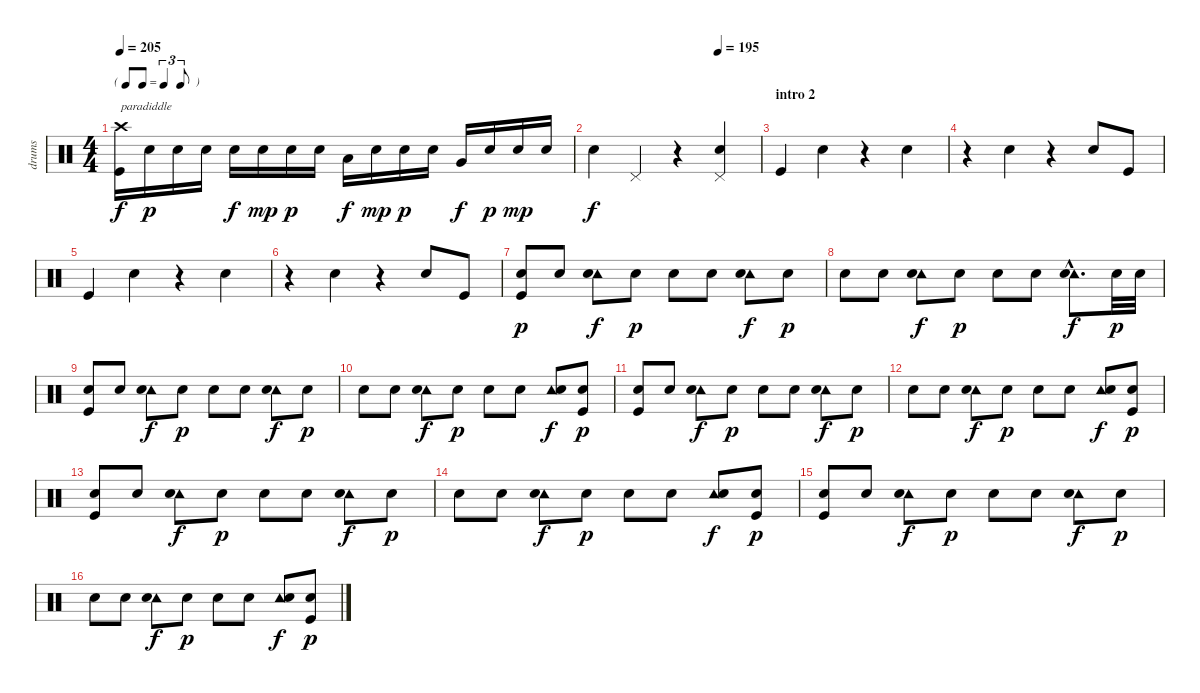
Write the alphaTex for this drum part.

\track ("drums" "drums") {instrument percussion}
\staff {score}
\articulation defaults
\ts (4 4)
\tf triplet8th
\tempo 205
\clef neutral
\ks c
("Crash high (hit)" "Kick (hit)").16{txt "paradiddle" dy f} "Snare (hit) 2".16{dy p} "Snare (hit) 2".16 "Snare (hit) 2".16 "Snare (hit) 2".16{dy f} "Snare (hit) 2".16{dy mp} "Snare (hit) 2".16{dy p} "Snare (hit) 2".16 "Low Tom (hit)".16{dy f} "Snare (hit) 2".16{dy mp} "Snare (hit) 2".16{dy p} "Snare (hit) 2".16 "Very Low Tom (hit)".16{dy f} "Snare (hit) 2".16{dy p} "Snare (hit) 2".16{dy mp} "Snare (hit) 2".16 |
\tempo (195 0.75)
"Snare (hit) 2".4{dy f} "Pedal Hi-Hat (hit)".4 r.4 ("Pedal Hi-Hat (hit)" "Snare (hit) 2").4 |
\section ("" "intro 2")
"Kick (hit)".4 "Snare (hit) 2".4 r.4 "Snare (hit) 2".4 |
r.4 "Snare (hit) 2".4 r.4 "Snare (hit) 2".8 "Kick (hit)".8 |
"Kick (hit)".4 "Snare (hit) 2".4 r.4 "Snare (hit) 2".4 |
r.4 "Snare (hit) 2".4 r.4 "Snare (hit) 2".8 "Kick (hit)".8 |
("Snare (hit) 2" "Kick (hit)").8{dy p} "Snare (hit) 2".8 ("Tambourine (hit)" "Snare (hit) 2").8{dy f} "Snare (hit) 2".8{dy p} "Snare (hit) 2".8 "Snare (hit) 2".8 ("Tambourine (hit)" "Snare (hit) 2").8{dy f} "Snare (hit) 2".8{dy p} |
"Snare (hit) 2".8 "Snare (hit) 2".8 ("Tambourine (hit)" "Snare (hit) 2").8{dy f} "Snare (hit) 2".8{dy p} "Snare (hit) 2".8 "Snare (hit) 2".8 ("Tambourine (hit)"{hac} "Snare (hit) 2"{hac}).8{d dy f} "Snare (hit) 2".32{dy p} "Snare (hit) 2".32 |
("Snare (hit) 2" "Kick (hit)").8 "Snare (hit) 2".8 ("Tambourine (hit)" "Snare (hit) 2").8{dy f} "Snare (hit) 2".8{dy p} "Snare (hit) 2".8 "Snare (hit) 2".8 ("Tambourine (hit)" "Snare (hit) 2").8{dy f} "Snare (hit) 2".8{dy p} |
"Snare (hit) 2".8 "Snare (hit) 2".8 ("Tambourine (hit)" "Snare (hit) 2").8{dy f} "Snare (hit) 2".8{dy p} "Snare (hit) 2".8 "Snare (hit) 2".8 ("Tambourine (hit)" "Snare (hit) 2").8{dy f} ("Snare (hit) 2" "Kick (hit)").8{dy p} |
("Snare (hit) 2" "Kick (hit)").8 "Snare (hit) 2".8 ("Tambourine (hit)" "Snare (hit) 2").8{dy f} "Snare (hit) 2".8{dy p} "Snare (hit) 2".8 "Snare (hit) 2".8 ("Tambourine (hit)" "Snare (hit) 2").8{dy f} "Snare (hit) 2".8{dy p} |
"Snare (hit) 2".8 "Snare (hit) 2".8 ("Tambourine (hit)" "Snare (hit) 2").8{dy f} "Snare (hit) 2".8{dy p} "Snare (hit) 2".8 "Snare (hit) 2".8 ("Tambourine (hit)" "Snare (hit) 2").8{dy f} ("Snare (hit) 2" "Kick (hit)").8{dy p} |
("Snare (hit) 2" "Kick (hit)").8 "Snare (hit) 2".8 ("Tambourine (hit)" "Snare (hit) 2").8{dy f} "Snare (hit) 2".8{dy p} "Snare (hit) 2".8 "Snare (hit) 2".8 ("Tambourine (hit)" "Snare (hit) 2").8{dy f} "Snare (hit) 2".8{dy p} |
"Snare (hit) 2".8 "Snare (hit) 2".8 ("Tambourine (hit)" "Snare (hit) 2").8{dy f} "Snare (hit) 2".8{dy p} "Snare (hit) 2".8 "Snare (hit) 2".8 ("Tambourine (hit)" "Snare (hit) 2").8{dy f} ("Snare (hit) 2" "Kick (hit)").8{dy p} |
("Snare (hit) 2" "Kick (hit)").8 "Snare (hit) 2".8 ("Tambourine (hit)" "Snare (hit) 2").8{dy f} "Snare (hit) 2".8{dy p} "Snare (hit) 2".8 "Snare (hit) 2".8 ("Tambourine (hit)" "Snare (hit) 2").8{dy f} "Snare (hit) 2".8{dy p} |
"Snare (hit) 2".8 "Snare (hit) 2".8 ("Tambourine (hit)" "Snare (hit) 2").8{dy f} "Snare (hit) 2".8{dy p} "Snare (hit) 2".8 "Snare (hit) 2".8 ("Tambourine (hit)" "Snare (hit) 2").8{dy f} ("Snare (hit) 2" "Kick (hit)").8{dy p}
